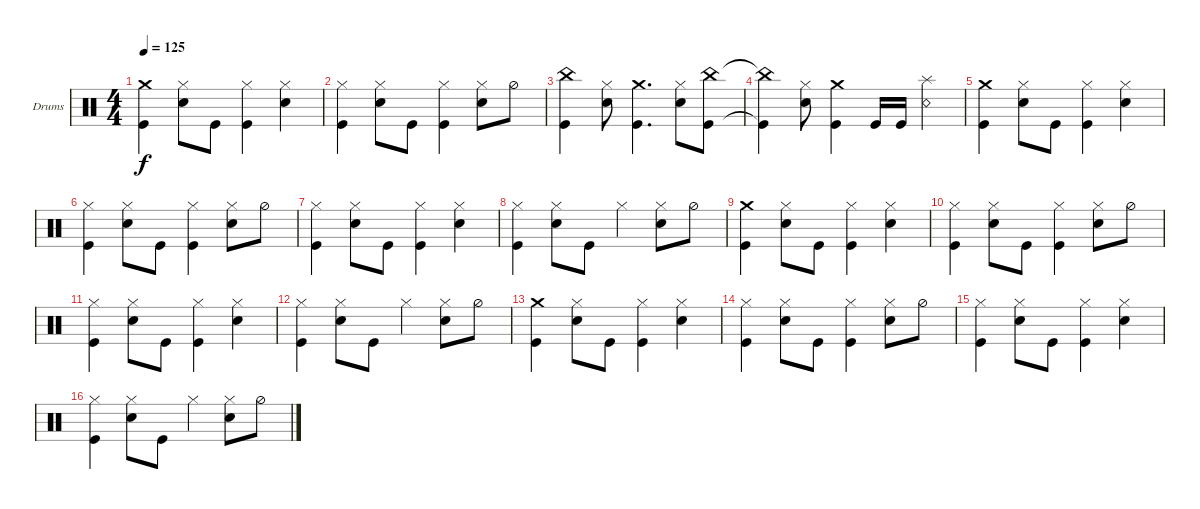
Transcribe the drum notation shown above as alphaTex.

\bracketExtendMode groupsimilarinstruments
\firstSystemTrackNameOrientation horizontal
\otherSystemsTrackNameOrientation horizontal
\track ("Drumkit" "Drums") {instrument percussion}
\staff {score}
\articulation defaults
\ts (4 4)
\tempo 125
\clef neutral
\ks c
("Kick (hit)" "Crash medium (hit)").4{dy f} ("Snare (hit) 2" "Hi-Hat (closed)").8 "Kick (hit)".8 ("Hi-Hat (closed)" "Kick (hit)").4 ("Hi-Hat (closed)" "Snare (hit) 2").4 |
("Kick (hit)" "Hi-Hat (closed)").4 ("Snare (hit) 2" "Hi-Hat (closed)").8 "Kick (hit)".8 ("Hi-Hat (closed)" "Kick (hit)").4 ("Hi-Hat (closed)" "Snare (hit) 2").8 "Hi-Hat (half)".8 |
("Kick (hit)" "China (hit)").4 ("Snare (hit) 2" "Hi-Hat (closed)").8 ("Kick (hit)" "Crash medium (hit)").4{d} ("Hi-Hat (closed)" "Snare (hit) 2").8 ("Kick (hit)" "China (hit)").8 |
("Kick (hit)"{t} "China (hit)"{t}).4 ("Snare (hit) 2" "Hi-Hat (closed)").8 ("Kick (hit)" "Crash medium (hit)").4 "Kick (hit)".16 "Kick (hit)".16 ("Snare (rim shot)" "Splash (hit)").4 |
("Kick (hit)" "Crash medium (hit)").4 ("Snare (hit) 2" "Hi-Hat (closed)").8 "Kick (hit)".8 ("Hi-Hat (closed)" "Kick (hit)").4 ("Hi-Hat (closed)" "Snare (hit) 2").4 |
("Kick (hit)" "Hi-Hat (closed)").4 ("Snare (hit) 2" "Hi-Hat (closed)").8 "Kick (hit)".8 ("Hi-Hat (closed)" "Kick (hit)").4 ("Hi-Hat (closed)" "Snare (hit) 2").8 "Hi-Hat (half)".8 |
("Kick (hit)" "Hi-Hat (closed)").4 ("Snare (hit) 2" "Hi-Hat (closed)").8 "Kick (hit)".8 ("Hi-Hat (closed)" "Kick (hit)").4 ("Hi-Hat (closed)" "Snare (hit) 2").4 |
("Kick (hit)" "Hi-Hat (closed)").4 ("Snare (hit) 2" "Hi-Hat (closed)").8 "Kick (hit)".8 "Hi-Hat (closed)".4 ("Hi-Hat (closed)" "Snare (hit) 2").8 "Hi-Hat (half)".8 |
("Kick (hit)" "Crash medium (hit)").4 ("Snare (hit) 2" "Hi-Hat (closed)").8 "Kick (hit)".8 ("Hi-Hat (closed)" "Kick (hit)").4 ("Hi-Hat (closed)" "Snare (hit) 2").4 |
("Kick (hit)" "Hi-Hat (closed)").4 ("Snare (hit) 2" "Hi-Hat (closed)").8 "Kick (hit)".8 ("Hi-Hat (closed)" "Kick (hit)").4 ("Hi-Hat (closed)" "Snare (hit) 2").8 "Hi-Hat (half)".8 |
("Kick (hit)" "Hi-Hat (closed)").4 ("Snare (hit) 2" "Hi-Hat (closed)").8 "Kick (hit)".8 ("Hi-Hat (closed)" "Kick (hit)").4 ("Hi-Hat (closed)" "Snare (hit) 2").4 |
("Kick (hit)" "Hi-Hat (closed)").4 ("Snare (hit) 2" "Hi-Hat (closed)").8 "Kick (hit)".8 "Hi-Hat (closed)".4 ("Hi-Hat (closed)" "Snare (hit) 2").8 "Hi-Hat (half)".8 |
("Kick (hit)" "Crash medium (hit)").4 ("Snare (hit) 2" "Hi-Hat (closed)").8 "Kick (hit)".8 ("Hi-Hat (closed)" "Kick (hit)").4 ("Hi-Hat (closed)" "Snare (hit) 2").4 |
("Kick (hit)" "Hi-Hat (closed)").4 ("Snare (hit) 2" "Hi-Hat (closed)").8 "Kick (hit)".8 ("Hi-Hat (closed)" "Kick (hit)").4 ("Hi-Hat (closed)" "Snare (hit) 2").8 "Hi-Hat (half)".8 |
("Kick (hit)" "Hi-Hat (closed)").4 ("Snare (hit) 2" "Hi-Hat (closed)").8 "Kick (hit)".8 ("Hi-Hat (closed)" "Kick (hit)").4 ("Hi-Hat (closed)" "Snare (hit) 2").4 |
("Kick (hit)" "Hi-Hat (closed)").4 ("Snare (hit) 2" "Hi-Hat (closed)").8 "Kick (hit)".8 "Hi-Hat (closed)".4 ("Hi-Hat (closed)" "Snare (hit) 2").8 "Hi-Hat (half)".8
